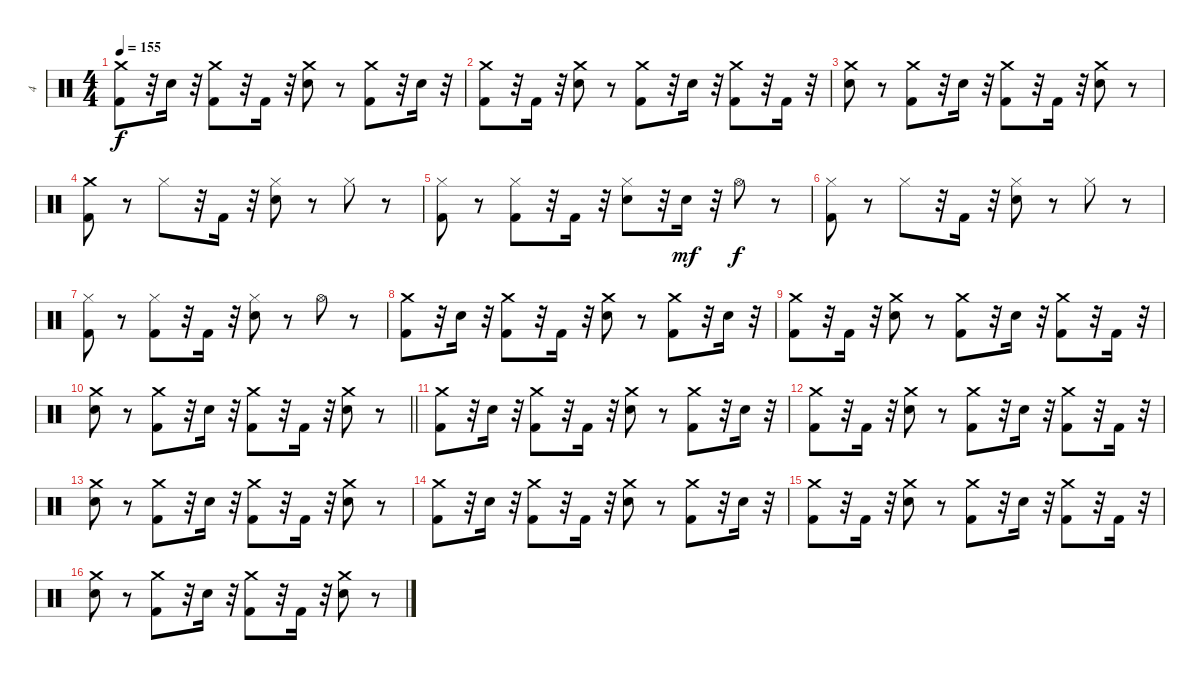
\track ("4" "4") {instrument percussion}
\staff {score}
\articulation defaults
\ts (4 4)
\tempo 155
\clef neutral
\ks c
("Crash medium (hit)" "Kick (hit) 2").8{dy f} r.32 "Electric Snare (hit)".16 r.32 ("Crash medium (hit)" "Kick (hit) 2").8 r.32 "Kick (hit) 2".16 r.32 ("Crash medium (hit)" "Electric Snare (hit)").8 r.8 ("Crash medium (hit)" "Kick (hit) 2").8 r.32 "Electric Snare (hit)".16 r.32 |
("Crash medium (hit)" "Kick (hit) 2").8 r.32 "Kick (hit) 2".16 r.32 ("Crash medium (hit)" "Electric Snare (hit)").8 r.8 ("Crash medium (hit)" "Kick (hit) 2").8 r.32 "Electric Snare (hit)".16 r.32 ("Crash medium (hit)" "Kick (hit) 2").8 r.32 "Kick (hit) 2".16 r.32 |
("Crash medium (hit)" "Electric Snare (hit)").8 r.8 ("Crash medium (hit)" "Kick (hit) 2").8 r.32 "Electric Snare (hit)".16 r.32 ("Crash medium (hit)" "Kick (hit) 2").8 r.32 "Kick (hit) 2".16 r.32 ("Crash medium (hit)" "Electric Snare (hit)").8 r.8 |
("Crash medium (hit)" "Kick (hit) 2").8 r.8 "Hi-Hat (closed)".8 r.32 "Kick (hit) 2".16 r.32 ("Hi-Hat (closed)" "Electric Snare (hit)").8 r.8 "Hi-Hat (closed)".8 r.8 |
("Hi-Hat (closed)" "Kick (hit) 2").8 r.8 ("Hi-Hat (closed)" "Kick (hit) 2").8 r.32 "Kick (hit) 2".16 r.32 ("Hi-Hat (closed)" "Electric Snare (hit)").8 r.32 "Electric Snare (hit)".16{dy mf} r.32 "Hi-Hat (open)".8{dy f} r.8 |
("Hi-Hat (closed)" "Kick (hit) 2").8 r.8 "Hi-Hat (closed)".8 r.32 "Kick (hit) 2".16 r.32 ("Hi-Hat (closed)" "Electric Snare (hit)").8 r.8 "Hi-Hat (closed)".8 r.8 |
("Hi-Hat (closed)" "Kick (hit) 2").8 r.8 ("Hi-Hat (closed)" "Kick (hit) 2").8 r.32 "Kick (hit) 2".16 r.32 ("Hi-Hat (closed)" "Electric Snare (hit)").8 r.8 "Hi-Hat (open)".8 r.8 |
("Crash medium (hit)" "Kick (hit) 2").8 r.32 "Electric Snare (hit)".16 r.32 ("Crash medium (hit)" "Kick (hit) 2").8 r.32 "Kick (hit) 2".16 r.32 ("Crash medium (hit)" "Electric Snare (hit)").8 r.8 ("Crash medium (hit)" "Kick (hit) 2").8 r.32 "Electric Snare (hit)".16 r.32 |
("Crash medium (hit)" "Kick (hit) 2").8 r.32 "Kick (hit) 2".16 r.32 ("Crash medium (hit)" "Electric Snare (hit)").8 r.8 ("Crash medium (hit)" "Kick (hit) 2").8 r.32 "Electric Snare (hit)".16 r.32 ("Crash medium (hit)" "Kick (hit) 2").8 r.32 "Kick (hit) 2".16 r.32 |
\barLineRight lightlight
("Crash medium (hit)" "Electric Snare (hit)").8 r.8 ("Crash medium (hit)" "Kick (hit) 2").8 r.32 "Electric Snare (hit)".16 r.32 ("Crash medium (hit)" "Kick (hit) 2").8 r.32 "Kick (hit) 2".16 r.32 ("Crash medium (hit)" "Electric Snare (hit)").8 r.8 |
\section ("" "")
("Crash medium (hit)" "Kick (hit) 2").8 r.32 "Electric Snare (hit)".16 r.32 ("Crash medium (hit)" "Kick (hit) 2").8 r.32 "Kick (hit) 2".16 r.32 ("Crash medium (hit)" "Electric Snare (hit)").8 r.8 ("Crash medium (hit)" "Kick (hit) 2").8 r.32 "Electric Snare (hit)".16 r.32 |
("Crash medium (hit)" "Kick (hit) 2").8 r.32 "Kick (hit) 2".16 r.32 ("Crash medium (hit)" "Electric Snare (hit)").8 r.8 ("Crash medium (hit)" "Kick (hit) 2").8 r.32 "Electric Snare (hit)".16 r.32 ("Crash medium (hit)" "Kick (hit) 2").8 r.32 "Kick (hit) 2".16 r.32 |
("Crash medium (hit)" "Electric Snare (hit)").8 r.8 ("Crash medium (hit)" "Kick (hit) 2").8 r.32 "Electric Snare (hit)".16 r.32 ("Crash medium (hit)" "Kick (hit) 2").8 r.32 "Kick (hit) 2".16 r.32 ("Crash medium (hit)" "Electric Snare (hit)").8 r.8 |
("Crash medium (hit)" "Kick (hit) 2").8 r.32 "Electric Snare (hit)".16 r.32 ("Crash medium (hit)" "Kick (hit) 2").8 r.32 "Kick (hit) 2".16 r.32 ("Crash medium (hit)" "Electric Snare (hit)").8 r.8 ("Crash medium (hit)" "Kick (hit) 2").8 r.32 "Electric Snare (hit)".16 r.32 |
("Crash medium (hit)" "Kick (hit) 2").8 r.32 "Kick (hit) 2".16 r.32 ("Crash medium (hit)" "Electric Snare (hit)").8 r.8 ("Crash medium (hit)" "Kick (hit) 2").8 r.32 "Electric Snare (hit)".16 r.32 ("Crash medium (hit)" "Kick (hit) 2").8 r.32 "Kick (hit) 2".16 r.32 |
("Crash medium (hit)" "Electric Snare (hit)").8 r.8 ("Crash medium (hit)" "Kick (hit) 2").8 r.32 "Electric Snare (hit)".16 r.32 ("Crash medium (hit)" "Kick (hit) 2").8 r.32 "Kick (hit) 2".16 r.32 ("Crash medium (hit)" "Electric Snare (hit)").8 r.8
